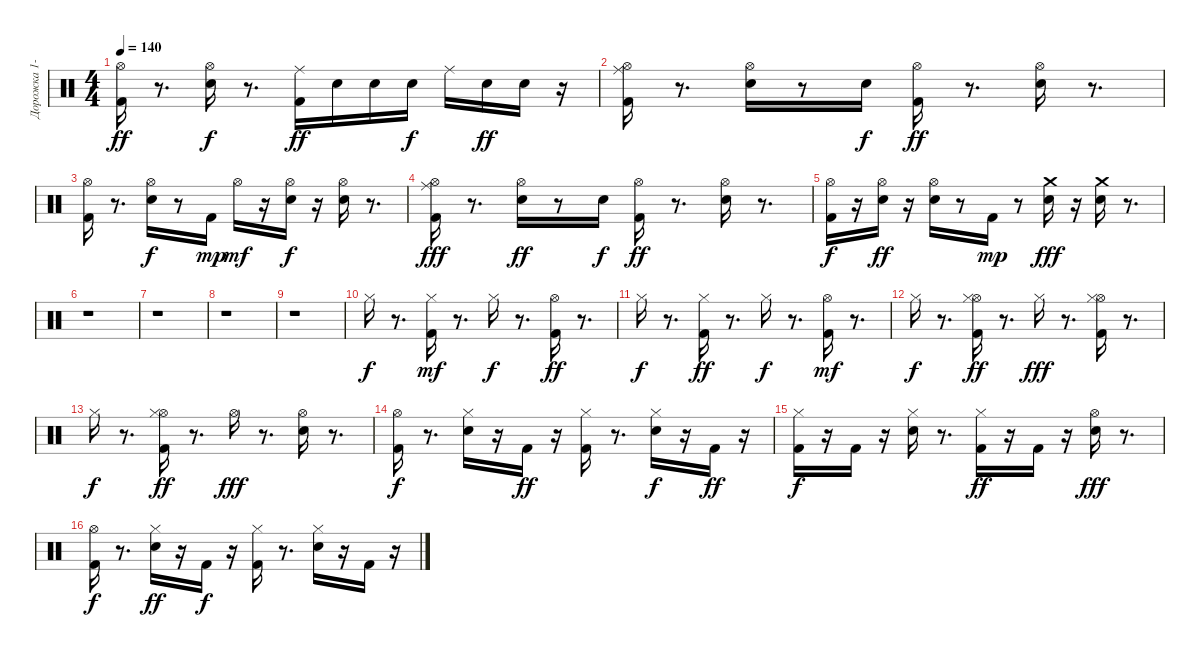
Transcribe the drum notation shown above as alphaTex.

\track ("Дорожка 1-2" "Дорожка 1-") {instrument percussion}
\staff {score}
\articulation defaults
\ts (4 4)
\tempo 140
\clef neutral
\ks c
("Hi-Hat (open)" "Kick (hit) 2").16{dy ff} r.8{d} ("Hi-Hat (open)" "Electric Snare (hit)").16{dy f} r.8{d} ("Ride (middle)" "Kick (hit) 2").16{dy ff} "Electric Snare (hit)".16 "Electric Snare (hit)".16 "Electric Snare (hit)".16{dy f} "Ride (middle)".16 "Electric Snare (hit)".16{dy ff} "Electric Snare (hit)".16 r.16 |
("Ride (middle)" "Kick (hit) 2" "Hi-Hat (open)").16 r.8{d} ("Electric Snare (hit)" "Hi-Hat (open)").16 r.8 "Electric Snare (hit)".16{dy f} ("Kick (hit) 2" "Hi-Hat (open)").16{dy ff} r.8{d} ("Electric Snare (hit)" "Hi-Hat (open)").16 r.8{d} |
("Hi-Hat (open)" "Kick (hit) 2").16 r.8{d} ("Hi-Hat (open)" "Electric Snare (hit)").16{dy f} r.8 "Kick (hit) 2".16{dy mp} "Hi-Hat (open)".16{dy mf} r.16 ("Hi-Hat (open)" "Electric Snare (hit)").16{dy f} r.16 ("Hi-Hat (open)" "Electric Snare (hit)").16 r.8{d} |
("Hi-Hat (open)" "Kick (hit) 2" "Ride (middle)").16{dy fff} r.8{d} ("Hi-Hat (open)" "Electric Snare (hit)").16{dy ff} r.8 "Electric Snare (hit)".16{dy f} ("Hi-Hat (open)" "Kick (hit) 2").16{dy ff} r.8{d} ("Hi-Hat (open)" "Electric Snare (hit)").16 r.8{d} |
("Hi-Hat (open)" "Kick (hit) 2").16{dy f} r.16 ("Hi-Hat (open)" "Electric Snare (hit)").16{dy ff} r.16 ("Hi-Hat (open)" "Electric Snare (hit)").16 r.8 "Kick (hit) 2".16{dy mp} r.8 ("Crash medium (hit)" "Electric Snare (hit)").16{dy fff} r.16 ("Crash medium (hit)" "Electric Snare (hit)").16 r.8{d} |
r.1 |
r.1 |
r.1 |
r.1 |
"Hi-Hat (closed)".16{dy f} r.8{d} ("Hi-Hat (closed)" "Kick (hit) 2").16{dy mf} r.8{d} "Hi-Hat (closed)".16{dy f} r.8{d} ("Kick (hit) 2" "Hi-Hat (open)").16{dy ff} r.8{d} |
"Hi-Hat (closed)".16{dy f} r.8{d} ("Hi-Hat (closed)" "Kick (hit) 2").16{dy ff} r.8{d} "Hi-Hat (closed)".16{dy f} r.8{d} ("Kick (hit) 2" "Hi-Hat (open)").16{dy mf} r.8{d} |
"Hi-Hat (closed)".16{dy f} r.8{d} ("Hi-Hat (open)" "Hi-Hat (closed)" "Kick (hit) 2").16{dy ff} r.8{d} "Hi-Hat (closed)".16{dy fff} r.8{d} ("Kick (hit) 2" "Hi-Hat (open)" "Hi-Hat (closed)").16 r.8{d} |
"Hi-Hat (closed)".16{dy f} r.8{d} ("Hi-Hat (open)" "Hi-Hat (closed)" "Kick (hit) 2").16{dy ff} r.8{d} "Hi-Hat (open)".16{dy fff} r.8{d} ("Hi-Hat (open)" "Electric Snare (hit)").16 r.8{d} |
("Hi-Hat (open)" "Kick (hit) 2").16{dy f} r.8{d} ("Electric Snare (hit)" "Hi-Hat (closed)").16 r.16 "Kick (hit) 2".16{dy ff} r.16 ("Kick (hit) 2" "Hi-Hat (closed)").16 r.8{d} ("Electric Snare (hit)" "Hi-Hat (closed)").16{dy f} r.16 "Kick (hit) 2".16{dy ff} r.16 |
("Hi-Hat (closed)" "Kick (hit) 2").16{dy f} r.16 "Kick (hit) 2".16 r.16 ("Hi-Hat (closed)" "Electric Snare (hit)").16 r.8{d} ("Hi-Hat (closed)" "Kick (hit) 2").16{dy ff} r.16 "Kick (hit) 2".16 r.16 ("Electric Snare (hit)" "Hi-Hat (open)").16{dy fff} r.8{d} |
("Hi-Hat (open)" "Kick (hit) 2").16{dy f} r.8{d} ("Electric Snare (hit)" "Hi-Hat (closed)").16{dy ff} r.16 "Kick (hit) 2".16{dy f} r.16 ("Kick (hit) 2" "Hi-Hat (closed)").16 r.8{d} ("Electric Snare (hit)" "Hi-Hat (closed)").16 r.16 "Kick (hit) 2".16 r.16
